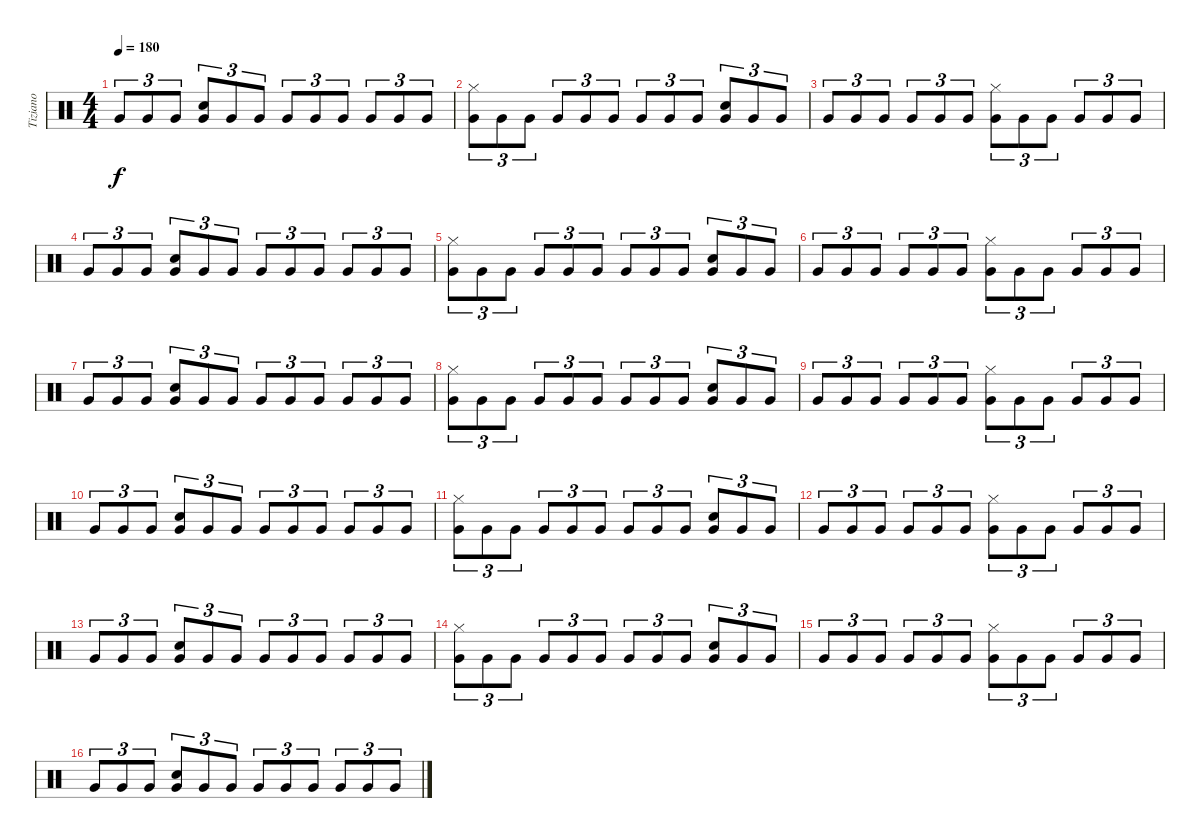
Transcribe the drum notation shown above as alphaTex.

\track ("Tiziano" "Tiziano") {instrument percussion}
\staff {score}
\articulation defaults
\ts (4 4)
\tempo 180
\clef neutral
\ks c "Very Low Tom (hit)".8{tu (3 2) dy f} "Very Low Tom (hit)".8{tu (3 2)} "Very Low Tom (hit)".8{tu (3 2)}
("Very Low Tom (hit)" "Snare (hit) 2").8{tu (3 2)} "Very Low Tom (hit)".8{tu (3 2)} "Very Low Tom (hit)".8{tu (3 2)} "Very Low Tom (hit)".8{tu (3 2)} "Very Low Tom (hit)".8{tu (3 2)} "Very Low Tom (hit)".8{tu (3 2)} "Very Low Tom (hit)".8{tu (3 2)} "Very Low Tom (hit)".8{tu (3 2)} "Very Low Tom (hit)".8{tu (3 2)} |
("Very Low Tom (hit)" "Hi-Hat (closed)").8{tu (3 2)} "Very Low Tom (hit)".8{tu (3 2)} "Very Low Tom (hit)".8{tu (3 2)} "Very Low Tom (hit)".8{tu (3 2)} "Very Low Tom (hit)".8{tu (3 2)} "Very Low Tom (hit)".8{tu (3 2)} "Very Low Tom (hit)".8{tu (3 2)} "Very Low Tom (hit)".8{tu (3 2)} "Very Low Tom (hit)".8{tu (3 2)} ("Very Low Tom (hit)" "Snare (hit) 2").8{tu (3 2)} "Very Low Tom (hit)".8{tu (3 2)} "Very Low Tom (hit)".8{tu (3 2)} |
"Very Low Tom (hit)".8{tu (3 2)} "Very Low Tom (hit)".8{tu (3 2)} "Very Low Tom (hit)".8{tu (3 2)} "Very Low Tom (hit)".8{tu (3 2)} "Very Low Tom (hit)".8{tu (3 2)} "Very Low Tom (hit)".8{tu (3 2)} ("Very Low Tom (hit)" "Hi-Hat (closed)").8{tu (3 2)} "Very Low Tom (hit)".8{tu (3 2)} "Very Low Tom (hit)".8{tu (3 2)} "Very Low Tom (hit)".8{tu (3 2)} "Very Low Tom (hit)".8{tu (3 2)} "Very Low Tom (hit)".8{tu (3 2)} |
"Very Low Tom (hit)".8{tu (3 2)} "Very Low Tom (hit)".8{tu (3 2)} "Very Low Tom (hit)".8{tu (3 2)} ("Very Low Tom (hit)" "Snare (hit) 2").8{tu (3 2)} "Very Low Tom (hit)".8{tu (3 2)} "Very Low Tom (hit)".8{tu (3 2)} "Very Low Tom (hit)".8{tu (3 2)} "Very Low Tom (hit)".8{tu (3 2)} "Very Low Tom (hit)".8{tu (3 2)} "Very Low Tom (hit)".8{tu (3 2)} "Very Low Tom (hit)".8{tu (3 2)} "Very Low Tom (hit)".8{tu (3 2)} |
("Very Low Tom (hit)" "Hi-Hat (closed)").8{tu (3 2)} "Very Low Tom (hit)".8{tu (3 2)} "Very Low Tom (hit)".8{tu (3 2)} "Very Low Tom (hit)".8{tu (3 2)} "Very Low Tom (hit)".8{tu (3 2)} "Very Low Tom (hit)".8{tu (3 2)} "Very Low Tom (hit)".8{tu (3 2)} "Very Low Tom (hit)".8{tu (3 2)} "Very Low Tom (hit)".8{tu (3 2)} ("Very Low Tom (hit)" "Snare (hit) 2").8{tu (3 2)} "Very Low Tom (hit)".8{tu (3 2)} "Very Low Tom (hit)".8{tu (3 2)} |
"Very Low Tom (hit)".8{tu (3 2)} "Very Low Tom (hit)".8{tu (3 2)} "Very Low Tom (hit)".8{tu (3 2)} "Very Low Tom (hit)".8{tu (3 2)} "Very Low Tom (hit)".8{tu (3 2)} "Very Low Tom (hit)".8{tu (3 2)} ("Very Low Tom (hit)" "Hi-Hat (closed)").8{tu (3 2)} "Very Low Tom (hit)".8{tu (3 2)} "Very Low Tom (hit)".8{tu (3 2)} "Very Low Tom (hit)".8{tu (3 2)} "Very Low Tom (hit)".8{tu (3 2)} "Very Low Tom (hit)".8{tu (3 2)} |
"Very Low Tom (hit)".8{tu (3 2)} "Very Low Tom (hit)".8{tu (3 2)} "Very Low Tom (hit)".8{tu (3 2)} ("Very Low Tom (hit)" "Snare (hit) 2").8{tu (3 2)} "Very Low Tom (hit)".8{tu (3 2)} "Very Low Tom (hit)".8{tu (3 2)} "Very Low Tom (hit)".8{tu (3 2)} "Very Low Tom (hit)".8{tu (3 2)} "Very Low Tom (hit)".8{tu (3 2)} "Very Low Tom (hit)".8{tu (3 2)} "Very Low Tom (hit)".8{tu (3 2)} "Very Low Tom (hit)".8{tu (3 2)} |
("Very Low Tom (hit)" "Hi-Hat (closed)").8{tu (3 2)} "Very Low Tom (hit)".8{tu (3 2)} "Very Low Tom (hit)".8{tu (3 2)} "Very Low Tom (hit)".8{tu (3 2)} "Very Low Tom (hit)".8{tu (3 2)} "Very Low Tom (hit)".8{tu (3 2)} "Very Low Tom (hit)".8{tu (3 2)} "Very Low Tom (hit)".8{tu (3 2)} "Very Low Tom (hit)".8{tu (3 2)} ("Very Low Tom (hit)" "Snare (hit) 2").8{tu (3 2)} "Very Low Tom (hit)".8{tu (3 2)} "Very Low Tom (hit)".8{tu (3 2)} |
"Very Low Tom (hit)".8{tu (3 2)} "Very Low Tom (hit)".8{tu (3 2)} "Very Low Tom (hit)".8{tu (3 2)} "Very Low Tom (hit)".8{tu (3 2)} "Very Low Tom (hit)".8{tu (3 2)} "Very Low Tom (hit)".8{tu (3 2)} ("Very Low Tom (hit)" "Hi-Hat (closed)").8{tu (3 2)} "Very Low Tom (hit)".8{tu (3 2)} "Very Low Tom (hit)".8{tu (3 2)} "Very Low Tom (hit)".8{tu (3 2)} "Very Low Tom (hit)".8{tu (3 2)} "Very Low Tom (hit)".8{tu (3 2)} |
"Very Low Tom (hit)".8{tu (3 2)} "Very Low Tom (hit)".8{tu (3 2)} "Very Low Tom (hit)".8{tu (3 2)} ("Very Low Tom (hit)" "Snare (hit) 2").8{tu (3 2)} "Very Low Tom (hit)".8{tu (3 2)} "Very Low Tom (hit)".8{tu (3 2)} "Very Low Tom (hit)".8{tu (3 2)} "Very Low Tom (hit)".8{tu (3 2)} "Very Low Tom (hit)".8{tu (3 2)} "Very Low Tom (hit)".8{tu (3 2)} "Very Low Tom (hit)".8{tu (3 2)} "Very Low Tom (hit)".8{tu (3 2)} |
("Very Low Tom (hit)" "Hi-Hat (closed)").8{tu (3 2)} "Very Low Tom (hit)".8{tu (3 2)} "Very Low Tom (hit)".8{tu (3 2)} "Very Low Tom (hit)".8{tu (3 2)} "Very Low Tom (hit)".8{tu (3 2)} "Very Low Tom (hit)".8{tu (3 2)} "Very Low Tom (hit)".8{tu (3 2)} "Very Low Tom (hit)".8{tu (3 2)} "Very Low Tom (hit)".8{tu (3 2)} ("Very Low Tom (hit)" "Snare (hit) 2").8{tu (3 2)} "Very Low Tom (hit)".8{tu (3 2)} "Very Low Tom (hit)".8{tu (3 2)} |
"Very Low Tom (hit)".8{tu (3 2)} "Very Low Tom (hit)".8{tu (3 2)} "Very Low Tom (hit)".8{tu (3 2)} "Very Low Tom (hit)".8{tu (3 2)} "Very Low Tom (hit)".8{tu (3 2)} "Very Low Tom (hit)".8{tu (3 2)} ("Very Low Tom (hit)" "Hi-Hat (closed)").8{tu (3 2)} "Very Low Tom (hit)".8{tu (3 2)} "Very Low Tom (hit)".8{tu (3 2)} "Very Low Tom (hit)".8{tu (3 2)} "Very Low Tom (hit)".8{tu (3 2)} "Very Low Tom (hit)".8{tu (3 2)} |
"Very Low Tom (hit)".8{tu (3 2)} "Very Low Tom (hit)".8{tu (3 2)} "Very Low Tom (hit)".8{tu (3 2)} ("Very Low Tom (hit)" "Snare (hit) 2").8{tu (3 2)} "Very Low Tom (hit)".8{tu (3 2)} "Very Low Tom (hit)".8{tu (3 2)} "Very Low Tom (hit)".8{tu (3 2)} "Very Low Tom (hit)".8{tu (3 2)} "Very Low Tom (hit)".8{tu (3 2)} "Very Low Tom (hit)".8{tu (3 2)} "Very Low Tom (hit)".8{tu (3 2)} "Very Low Tom (hit)".8{tu (3 2)} |
("Very Low Tom (hit)" "Hi-Hat (closed)").8{tu (3 2)} "Very Low Tom (hit)".8{tu (3 2)} "Very Low Tom (hit)".8{tu (3 2)} "Very Low Tom (hit)".8{tu (3 2)} "Very Low Tom (hit)".8{tu (3 2)} "Very Low Tom (hit)".8{tu (3 2)} "Very Low Tom (hit)".8{tu (3 2)} "Very Low Tom (hit)".8{tu (3 2)} "Very Low Tom (hit)".8{tu (3 2)} ("Very Low Tom (hit)" "Snare (hit) 2").8{tu (3 2)} "Very Low Tom (hit)".8{tu (3 2)} "Very Low Tom (hit)".8{tu (3 2)} |
"Very Low Tom (hit)".8{tu (3 2)} "Very Low Tom (hit)".8{tu (3 2)} "Very Low Tom (hit)".8{tu (3 2)} "Very Low Tom (hit)".8{tu (3 2)} "Very Low Tom (hit)".8{tu (3 2)} "Very Low Tom (hit)".8{tu (3 2)} ("Very Low Tom (hit)" "Hi-Hat (closed)").8{tu (3 2)} "Very Low Tom (hit)".8{tu (3 2)} "Very Low Tom (hit)".8{tu (3 2)} "Very Low Tom (hit)".8{tu (3 2)} "Very Low Tom (hit)".8{tu (3 2)} "Very Low Tom (hit)".8{tu (3 2)} |
"Very Low Tom (hit)".8{tu (3 2)} "Very Low Tom (hit)".8{tu (3 2)} "Very Low Tom (hit)".8{tu (3 2)} ("Very Low Tom (hit)" "Snare (hit) 2").8{tu (3 2)} "Very Low Tom (hit)".8{tu (3 2)} "Very Low Tom (hit)".8{tu (3 2)} "Very Low Tom (hit)".8{tu (3 2)} "Very Low Tom (hit)".8{tu (3 2)} "Very Low Tom (hit)".8{tu (3 2)} "Very Low Tom (hit)".8{tu (3 2)} "Very Low Tom (hit)".8{tu (3 2)} "Very Low Tom (hit)".8{tu (3 2)}
